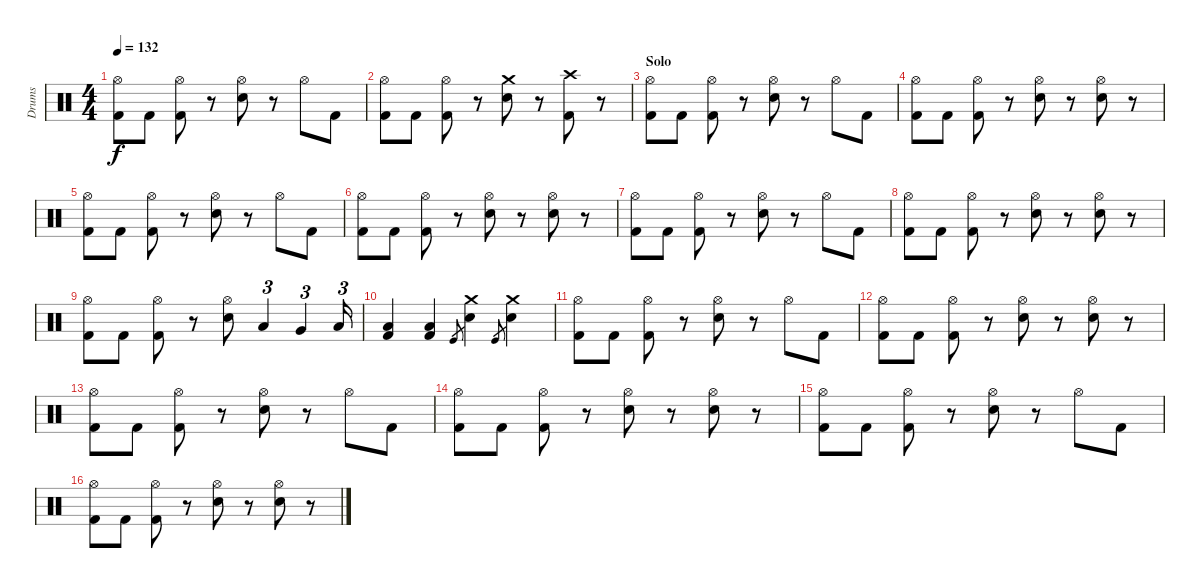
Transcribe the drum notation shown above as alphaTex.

\track ("Drums" "Drums") {instrument percussion}
\staff {score}
\articulation defaults
\ts (4 4)
\tempo 132
\clef neutral
\ks c
("Hi-Hat (open)" "Kick (hit) 2").8{dy f} "Kick (hit) 2".8 ("Hi-Hat (open)" "Kick (hit) 2").8 r.8 ("Hi-Hat (open)" "Electric Snare (hit)").8 r.8 "Hi-Hat (open)".8 "Kick (hit) 2".8 |
("Hi-Hat (open)" "Kick (hit) 2").8 "Kick (hit) 2".8 ("Hi-Hat (open)" "Kick (hit) 2").8 r.8 ("Crash medium (hit)" "Electric Snare (hit)").8 r.8 ("Crash high (hit)" "Kick (hit) 2").8 r.8 |
\section ("" "Solo")
("Hi-Hat (open)" "Kick (hit) 2").8 "Kick (hit) 2".8 ("Hi-Hat (open)" "Kick (hit) 2").8 r.8 ("Hi-Hat (open)" "Electric Snare (hit)").8 r.8 "Hi-Hat (open)".8 "Kick (hit) 2".8 |
("Hi-Hat (open)" "Kick (hit) 2").8 "Kick (hit) 2".8 ("Hi-Hat (open)" "Kick (hit) 2").8 r.8 ("Hi-Hat (open)" "Electric Snare (hit)").8 r.8 ("Hi-Hat (open)" "Electric Snare (hit)").8 r.8 |
("Hi-Hat (open)" "Kick (hit) 2").8 "Kick (hit) 2".8 ("Hi-Hat (open)" "Kick (hit) 2").8 r.8 ("Hi-Hat (open)" "Electric Snare (hit)").8 r.8 "Hi-Hat (open)".8 "Kick (hit) 2".8 |
("Hi-Hat (open)" "Kick (hit) 2").8 "Kick (hit) 2".8 ("Hi-Hat (open)" "Kick (hit) 2").8 r.8 ("Hi-Hat (open)" "Electric Snare (hit)").8 r.8 ("Hi-Hat (open)" "Electric Snare (hit)").8 r.8 |
("Hi-Hat (open)" "Kick (hit) 2").8 "Kick (hit) 2".8 ("Hi-Hat (open)" "Kick (hit) 2").8 r.8 ("Hi-Hat (open)" "Electric Snare (hit)").8 r.8 "Hi-Hat (open)".8 "Kick (hit) 2".8 |
("Hi-Hat (open)" "Kick (hit) 2").8 "Kick (hit) 2".8 ("Hi-Hat (open)" "Kick (hit) 2").8 r.8 ("Hi-Hat (open)" "Electric Snare (hit)").8 r.8 ("Hi-Hat (open)" "Electric Snare (hit)").8 r.8 |
("Hi-Hat (open)" "Kick (hit) 2").8 "Kick (hit) 2".8 ("Hi-Hat (open)" "Kick (hit) 2").8 r.8 ("Hi-Hat (open)" "Electric Snare (hit)").8 "Low Tom (hit)".4{tu (3 2)} "Very Low Tom (hit)".4{tu (3 2)} "Low Floor Tom (hit)".16{tu (3 2)} |
("Low Floor Tom (hit)" "Kick (hit) 2").4 ("Low Floor Tom (hit)" "Kick (hit) 2").4 "Kick (hit)".8{gr} ("Crash medium (hit)" "Electric Snare (hit)").4 "Kick (hit)".8{gr} ("Crash medium (hit)" "Electric Snare (hit)").4 |
("Hi-Hat (open)" "Kick (hit) 2").8 "Kick (hit) 2".8 ("Hi-Hat (open)" "Kick (hit) 2").8 r.8 ("Hi-Hat (open)" "Electric Snare (hit)").8 r.8 "Hi-Hat (open)".8 "Kick (hit) 2".8 |
("Hi-Hat (open)" "Kick (hit) 2").8 "Kick (hit) 2".8 ("Hi-Hat (open)" "Kick (hit) 2").8 r.8 ("Hi-Hat (open)" "Electric Snare (hit)").8 r.8 ("Hi-Hat (open)" "Electric Snare (hit)").8 r.8 |
("Hi-Hat (open)" "Kick (hit) 2").8 "Kick (hit) 2".8 ("Hi-Hat (open)" "Kick (hit) 2").8 r.8 ("Hi-Hat (open)" "Electric Snare (hit)").8 r.8 "Hi-Hat (open)".8 "Kick (hit) 2".8 |
("Hi-Hat (open)" "Kick (hit) 2").8 "Kick (hit) 2".8 ("Hi-Hat (open)" "Kick (hit) 2").8 r.8 ("Hi-Hat (open)" "Electric Snare (hit)").8 r.8 ("Hi-Hat (open)" "Electric Snare (hit)").8 r.8 |
("Hi-Hat (open)" "Kick (hit) 2").8 "Kick (hit) 2".8 ("Hi-Hat (open)" "Kick (hit) 2").8 r.8 ("Hi-Hat (open)" "Electric Snare (hit)").8 r.8 "Hi-Hat (open)".8 "Kick (hit) 2".8 |
("Hi-Hat (open)" "Kick (hit) 2").8 "Kick (hit) 2".8 ("Hi-Hat (open)" "Kick (hit) 2").8 r.8 ("Hi-Hat (open)" "Electric Snare (hit)").8 r.8 ("Hi-Hat (open)" "Electric Snare (hit)").8 r.8
